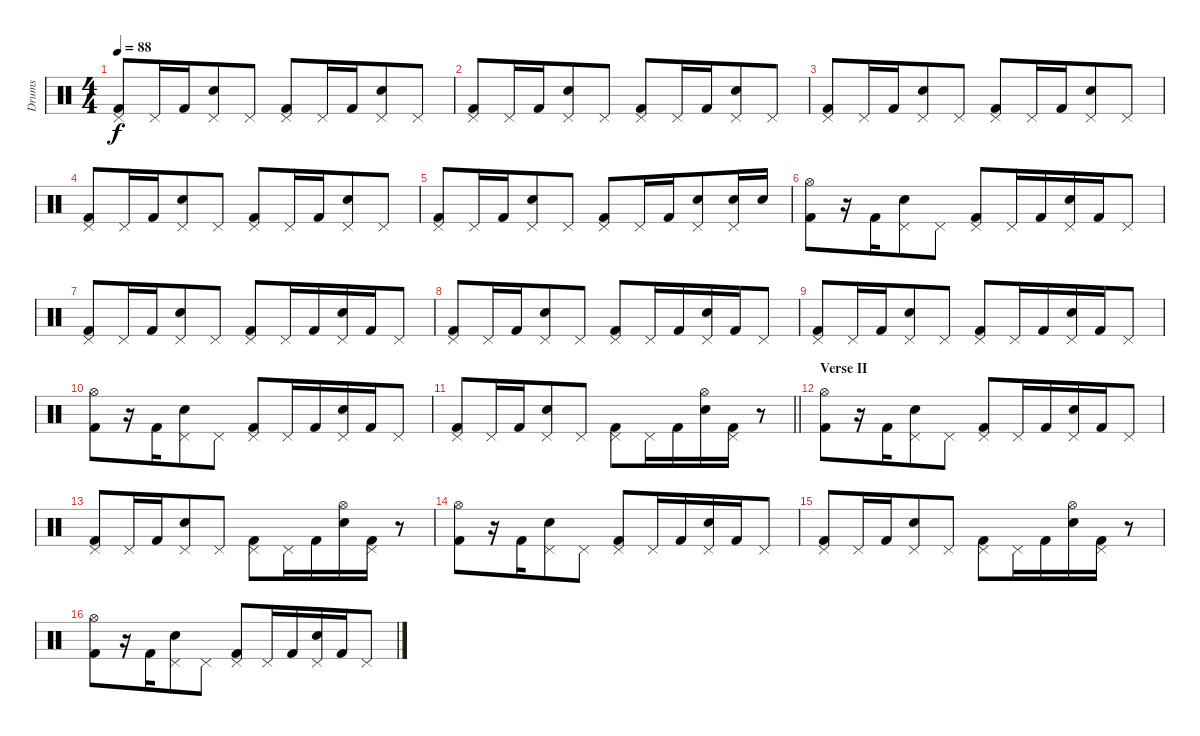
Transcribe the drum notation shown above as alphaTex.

\track ("Drums" "Drums") {instrument percussion}
\staff {score}
\articulation defaults
\ts (4 4)
\tempo 88
\clef neutral
\ks aminor
("Pedal Hi-Hat (hit)" "Kick (hit) 2").8{dy f} "Pedal Hi-Hat (hit)".16 "Kick (hit) 2".16{beam merge} ("Pedal Hi-Hat (hit)" "Electric Snare (hit)").8{beam merge} "Pedal Hi-Hat (hit)".8 ("Pedal Hi-Hat (hit)" "Kick (hit) 2").8{beam merge} "Pedal Hi-Hat (hit)".16 "Kick (hit) 2".16{beam merge} ("Pedal Hi-Hat (hit)" "Electric Snare (hit)").8{beam merge} "Pedal Hi-Hat (hit)".8 |
("Pedal Hi-Hat (hit)" "Kick (hit) 2").8 "Pedal Hi-Hat (hit)".16 "Kick (hit) 2".16{beam merge} ("Pedal Hi-Hat (hit)" "Electric Snare (hit)").8{beam merge} "Pedal Hi-Hat (hit)".8 ("Pedal Hi-Hat (hit)" "Kick (hit) 2").8{beam merge} "Pedal Hi-Hat (hit)".16 "Kick (hit) 2".16{beam merge} ("Pedal Hi-Hat (hit)" "Electric Snare (hit)").8{beam merge} "Pedal Hi-Hat (hit)".8 |
("Pedal Hi-Hat (hit)" "Kick (hit) 2").8 "Pedal Hi-Hat (hit)".16 "Kick (hit) 2".16{beam merge} ("Pedal Hi-Hat (hit)" "Electric Snare (hit)").8{beam merge} "Pedal Hi-Hat (hit)".8 ("Pedal Hi-Hat (hit)" "Kick (hit) 2").8{beam merge} "Pedal Hi-Hat (hit)".16 "Kick (hit) 2".16{beam merge} ("Pedal Hi-Hat (hit)" "Electric Snare (hit)").8{beam merge} "Pedal Hi-Hat (hit)".8 |
("Pedal Hi-Hat (hit)" "Kick (hit) 2").8 "Pedal Hi-Hat (hit)".16 "Kick (hit) 2".16{beam merge} ("Pedal Hi-Hat (hit)" "Electric Snare (hit)").8{beam merge} "Pedal Hi-Hat (hit)".8 ("Pedal Hi-Hat (hit)" "Kick (hit) 2").8{beam merge} "Pedal Hi-Hat (hit)".16 "Kick (hit) 2".16{beam merge} ("Pedal Hi-Hat (hit)" "Electric Snare (hit)").8{beam merge} "Pedal Hi-Hat (hit)".8 |
("Pedal Hi-Hat (hit)" "Kick (hit) 2").8 "Pedal Hi-Hat (hit)".16 "Kick (hit) 2".16{beam merge} ("Pedal Hi-Hat (hit)" "Electric Snare (hit)").8{beam merge} "Pedal Hi-Hat (hit)".8 ("Pedal Hi-Hat (hit)" "Kick (hit) 2").8{beam merge} "Pedal Hi-Hat (hit)".16 "Kick (hit) 2".16{beam merge} ("Pedal Hi-Hat (hit)" "Electric Snare (hit)").8{beam merge} ("Pedal Hi-Hat (hit)" "Electric Snare (hit)").16 "Electric Snare (hit)".16 |
("Hi-Hat (open)" "Kick (hit) 2").8 r.16 "Kick (hit) 2".16{beam merge} ("Pedal Hi-Hat (hit)" "Electric Snare (hit)").8{beam merge} "Pedal Hi-Hat (hit)".8 ("Pedal Hi-Hat (hit)" "Kick (hit) 2").8{beam merge} "Pedal Hi-Hat (hit)".16 "Kick (hit) 2".16{beam merge} ("Pedal Hi-Hat (hit)" "Electric Snare (hit)").16{beam merge} "Kick (hit) 2".16{beam merge} "Pedal Hi-Hat (hit)".8 |
("Pedal Hi-Hat (hit)" "Kick (hit) 2").8 "Pedal Hi-Hat (hit)".16 "Kick (hit) 2".16{beam merge} ("Pedal Hi-Hat (hit)" "Electric Snare (hit)").8{beam merge} "Pedal Hi-Hat (hit)".8 ("Pedal Hi-Hat (hit)" "Kick (hit) 2").8{beam merge} "Pedal Hi-Hat (hit)".16 "Kick (hit) 2".16{beam merge} ("Pedal Hi-Hat (hit)" "Electric Snare (hit)").16{beam merge} "Kick (hit) 2".16{beam merge} "Pedal Hi-Hat (hit)".8 |
("Pedal Hi-Hat (hit)" "Kick (hit) 2").8 "Pedal Hi-Hat (hit)".16 "Kick (hit) 2".16{beam merge} ("Pedal Hi-Hat (hit)" "Electric Snare (hit)").8{beam merge} "Pedal Hi-Hat (hit)".8 ("Pedal Hi-Hat (hit)" "Kick (hit) 2").8{beam merge} "Pedal Hi-Hat (hit)".16 "Kick (hit) 2".16{beam merge} ("Pedal Hi-Hat (hit)" "Electric Snare (hit)").16{beam merge} "Kick (hit) 2".16{beam merge} "Pedal Hi-Hat (hit)".8 |
("Pedal Hi-Hat (hit)" "Kick (hit) 2").8 "Pedal Hi-Hat (hit)".16 "Kick (hit) 2".16{beam merge} ("Pedal Hi-Hat (hit)" "Electric Snare (hit)").8{beam merge} "Pedal Hi-Hat (hit)".8 ("Pedal Hi-Hat (hit)" "Kick (hit) 2").8{beam merge} "Pedal Hi-Hat (hit)".16 "Kick (hit) 2".16{beam merge} ("Pedal Hi-Hat (hit)" "Electric Snare (hit)").16{beam merge} "Kick (hit) 2".16{beam merge} "Pedal Hi-Hat (hit)".8 |
("Hi-Hat (open)" "Kick (hit) 2").8 r.16 "Kick (hit) 2".16{beam merge} ("Pedal Hi-Hat (hit)" "Electric Snare (hit)").8{beam merge} "Pedal Hi-Hat (hit)".8 ("Pedal Hi-Hat (hit)" "Kick (hit) 2").8{beam merge} "Pedal Hi-Hat (hit)".16 "Kick (hit) 2".16{beam merge} ("Pedal Hi-Hat (hit)" "Electric Snare (hit)").16{beam merge} "Kick (hit) 2".16{beam merge} "Pedal Hi-Hat (hit)".8 |
\barLineRight lightlight
("Pedal Hi-Hat (hit)" "Kick (hit) 2").8 "Pedal Hi-Hat (hit)".16 "Kick (hit) 2".16{beam merge} ("Pedal Hi-Hat (hit)" "Electric Snare (hit)").8{beam merge} "Pedal Hi-Hat (hit)".8 ("Pedal Hi-Hat (hit)" "Kick (hit) 2").8{beam merge} "Pedal Hi-Hat (hit)".16 "Kick (hit) 2".16{beam merge} ("Hi-Hat (open)" "Electric Snare (hit)").16{beam merge} ("Pedal Hi-Hat (hit)" "Kick (hit) 2").16{beam merge} r.8 |
\section ("" "Verse II")
("Hi-Hat (open)" "Kick (hit) 2").8 r.16 "Kick (hit) 2".16{beam merge} ("Pedal Hi-Hat (hit)" "Electric Snare (hit)").8{beam merge} "Pedal Hi-Hat (hit)".8 ("Pedal Hi-Hat (hit)" "Kick (hit) 2").8{beam merge} "Pedal Hi-Hat (hit)".16 "Kick (hit) 2".16{beam merge} ("Pedal Hi-Hat (hit)" "Electric Snare (hit)").16{beam merge} "Kick (hit) 2".16{beam merge} "Pedal Hi-Hat (hit)".8 |
("Pedal Hi-Hat (hit)" "Kick (hit) 2").8 "Pedal Hi-Hat (hit)".16 "Kick (hit) 2".16{beam merge} ("Pedal Hi-Hat (hit)" "Electric Snare (hit)").8{beam merge} "Pedal Hi-Hat (hit)".8 ("Pedal Hi-Hat (hit)" "Kick (hit) 2").8{beam merge} "Pedal Hi-Hat (hit)".16 "Kick (hit) 2".16{beam merge} ("Hi-Hat (open)" "Electric Snare (hit)").16{beam merge} ("Pedal Hi-Hat (hit)" "Kick (hit) 2").16{beam merge} r.8 |
("Hi-Hat (open)" "Kick (hit) 2").8 r.16 "Kick (hit) 2".16{beam merge} ("Pedal Hi-Hat (hit)" "Electric Snare (hit)").8{beam merge} "Pedal Hi-Hat (hit)".8 ("Pedal Hi-Hat (hit)" "Kick (hit) 2").8{beam merge} "Pedal Hi-Hat (hit)".16 "Kick (hit) 2".16{beam merge} ("Pedal Hi-Hat (hit)" "Electric Snare (hit)").16{beam merge} "Kick (hit) 2".16{beam merge} "Pedal Hi-Hat (hit)".8 |
("Pedal Hi-Hat (hit)" "Kick (hit) 2").8 "Pedal Hi-Hat (hit)".16 "Kick (hit) 2".16{beam merge} ("Pedal Hi-Hat (hit)" "Electric Snare (hit)").8{beam merge} "Pedal Hi-Hat (hit)".8 ("Pedal Hi-Hat (hit)" "Kick (hit) 2").8{beam merge} "Pedal Hi-Hat (hit)".16 "Kick (hit) 2".16{beam merge} ("Hi-Hat (open)" "Electric Snare (hit)").16{beam merge} ("Pedal Hi-Hat (hit)" "Kick (hit) 2").16{beam merge} r.8 |
("Hi-Hat (open)" "Kick (hit) 2").8 r.16 "Kick (hit) 2".16{beam merge} ("Pedal Hi-Hat (hit)" "Electric Snare (hit)").8{beam merge} "Pedal Hi-Hat (hit)".8 ("Pedal Hi-Hat (hit)" "Kick (hit) 2").8{beam merge} "Pedal Hi-Hat (hit)".16 "Kick (hit) 2".16{beam merge} ("Pedal Hi-Hat (hit)" "Electric Snare (hit)").16{beam merge} "Kick (hit) 2".16{beam merge} "Pedal Hi-Hat (hit)".8
